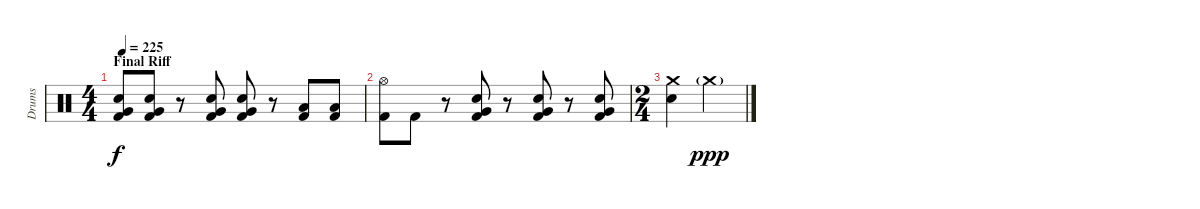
\track ("Drums" "Drums") {instrument percussion}
\staff {score}
\articulation defaults
\ts (4 4)
\section ("" "Final Riff")
\tempo 225
\clef neutral
\ks c
("Very Low Tom (hit)" "Electric Snare (hit)" "Kick (hit) 2").8{dy f} ("Very Low Tom (hit)" "Electric Snare (hit)" "Kick (hit) 2").8 r.8 ("Very Low Tom (hit)" "Electric Snare (hit)" "Kick (hit) 2").8 ("Very Low Tom (hit)" "Electric Snare (hit)" "Kick (hit) 2").8 r.8 ("Low Tom (hit)" "Kick (hit) 2").8 ("Low Tom (hit)" "Kick (hit) 2").8 |
("Hi-Hat (open)" "Kick (hit) 2").8 "Kick (hit) 2".8 r.8 ("Very Low Tom (hit)" "Electric Snare (hit)" "Kick (hit) 2").8 r.8 ("Very Low Tom (hit)" "Electric Snare (hit)" "Kick (hit) 2").8 r.8 ("Very Low Tom (hit)" "Electric Snare (hit)" "Kick (hit) 2").8 |
\ts (2 4)
("Crash medium (hit)" "Electric Snare (hit)").4 "Crash medium (hit)"{g}.4{dy ppp}
